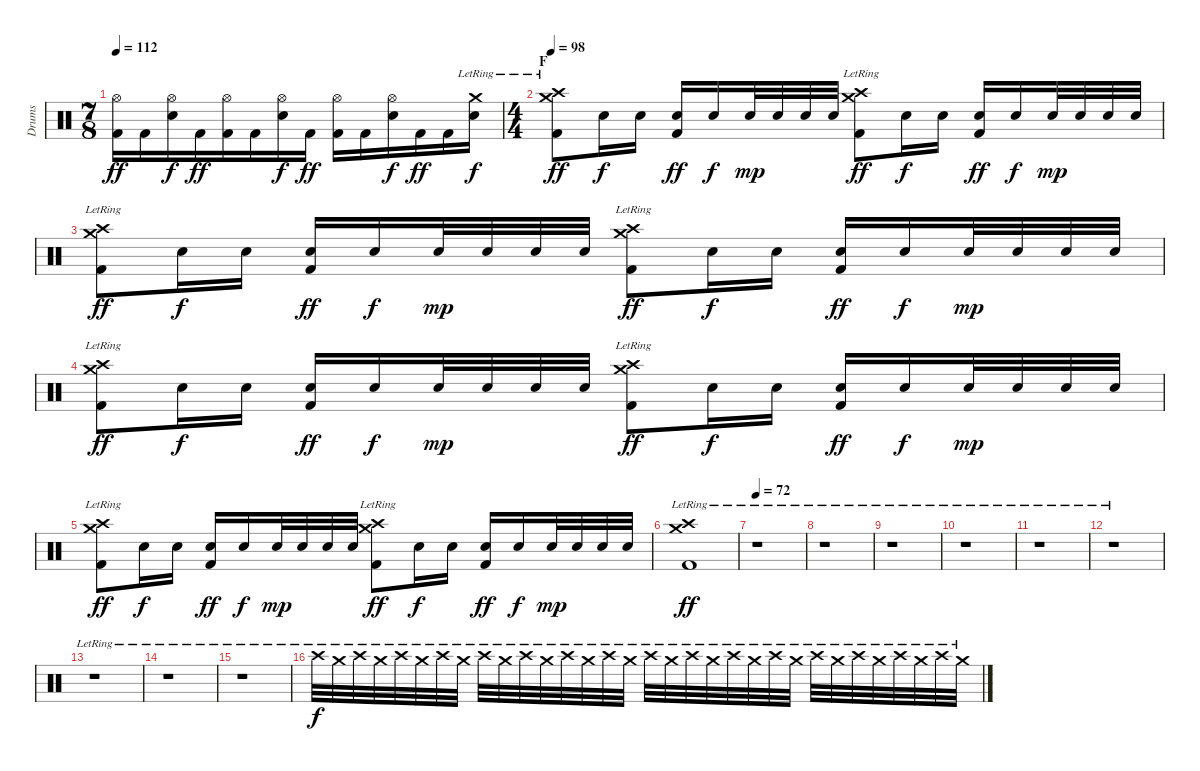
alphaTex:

\track ("Drums" "Drums") {instrument percussion}
\staff {score}
\articulation defaults
\ts (7 8)
\tempo 112
\clef neutral
\ks c
("Hi-Hat (open)" "Kick (hit) 2").16{dy ff} "Kick (hit) 2".16 ("Hi-Hat (open)" "Snare (hit) 2").16{dy f} "Kick (hit) 2".16{dy ff} ("Hi-Hat (open)" "Kick (hit) 2").16 "Kick (hit) 2".16 ("Hi-Hat (open)" "Snare (hit) 2").16{dy f} "Kick (hit) 2".16{dy ff} ("Hi-Hat (open)" "Kick (hit) 2").16 "Kick (hit) 2".16 ("Hi-Hat (open)" "Snare (hit) 2").16{dy f} "Kick (hit) 2".16{dy ff} "Kick (hit) 2".16 ("Crash medium (hit)"{lr} "Snare (hit) 2").16{dy f} |
\ts (4 4)
\section ("" "F")
\tempo 98
("Crash medium (hit)"{lr} "Crash high (hit)" "Kick (hit) 2").8{dy ff} "Snare (hit) 2".16{dy f} "Snare (hit) 2".16 ("Snare (hit) 2" "Kick (hit) 2").16{dy ff} "Snare (hit) 2".16{dy f} "Snare (hit) 2".32{dy mp} "Snare (hit) 2".32 "Snare (hit) 2".32 "Snare (hit) 2".32 ("Crash medium (hit)"{lr} "Crash high (hit)" "Kick (hit) 2").8{dy ff} "Snare (hit) 2".16{dy f} "Snare (hit) 2".16 ("Snare (hit) 2" "Kick (hit) 2").16{dy ff} "Snare (hit) 2".16{dy f} "Snare (hit) 2".32{dy mp} "Snare (hit) 2".32 "Snare (hit) 2".32 "Snare (hit) 2".32 |
("Crash medium (hit)"{lr} "Crash high (hit)" "Kick (hit) 2").8{dy ff} "Snare (hit) 2".16{dy f} "Snare (hit) 2".16 ("Snare (hit) 2" "Kick (hit) 2").16{dy ff} "Snare (hit) 2".16{dy f} "Snare (hit) 2".32{dy mp} "Snare (hit) 2".32 "Snare (hit) 2".32 "Snare (hit) 2".32 ("Crash medium (hit)"{lr} "Crash high (hit)" "Kick (hit) 2").8{dy ff} "Snare (hit) 2".16{dy f} "Snare (hit) 2".16 ("Snare (hit) 2" "Kick (hit) 2").16{dy ff} "Snare (hit) 2".16{dy f} "Snare (hit) 2".32{dy mp} "Snare (hit) 2".32 "Snare (hit) 2".32 "Snare (hit) 2".32 |
("Crash medium (hit)"{lr} "Crash high (hit)" "Kick (hit) 2").8{dy ff} "Snare (hit) 2".16{dy f} "Snare (hit) 2".16 ("Snare (hit) 2" "Kick (hit) 2").16{dy ff} "Snare (hit) 2".16{dy f} "Snare (hit) 2".32{dy mp} "Snare (hit) 2".32 "Snare (hit) 2".32 "Snare (hit) 2".32 ("Crash medium (hit)"{lr} "Crash high (hit)" "Kick (hit) 2").8{dy ff} "Snare (hit) 2".16{dy f} "Snare (hit) 2".16 ("Snare (hit) 2" "Kick (hit) 2").16{dy ff} "Snare (hit) 2".16{dy f} "Snare (hit) 2".32{dy mp} "Snare (hit) 2".32 "Snare (hit) 2".32 "Snare (hit) 2".32 |
("Crash medium (hit)"{lr} "Crash high (hit)" "Kick (hit) 2").8{dy ff} "Snare (hit) 2".16{dy f} "Snare (hit) 2".16 ("Snare (hit) 2" "Kick (hit) 2").16{dy ff} "Snare (hit) 2".16{dy f} "Snare (hit) 2".32{dy mp} "Snare (hit) 2".32 "Snare (hit) 2".32 "Snare (hit) 2".32 ("Crash medium (hit)"{lr} "Crash high (hit)" "Kick (hit) 2").8{dy ff} "Snare (hit) 2".16{dy f} "Snare (hit) 2".16 ("Snare (hit) 2" "Kick (hit) 2").16{dy ff} "Snare (hit) 2".16{dy f} "Snare (hit) 2".32{dy mp} "Snare (hit) 2".32 "Snare (hit) 2".32 "Snare (hit) 2".32 |
("Crash medium (hit)"{lr} "Crash high (hit)" "Kick (hit) 2").1{dy ff} |
\tempo 72
r.1{volume 0} |
r.1 |
r.1 |
r.1 |
r.1 |
r.1 |
r.1 |
r.1 |
r.1 |
"Crash high (hit)"{lr}.32{dy f volume 16} "Crash medium (hit)"{lr}.32 "Crash high (hit)"{lr}.32 "Crash medium (hit)"{lr}.32 "Crash high (hit)"{lr}.32 "Crash medium (hit)"{lr}.32 "Crash high (hit)"{lr}.32 "Crash medium (hit)"{lr}.32 "Crash high (hit)"{lr}.32 "Crash medium (hit)"{lr}.32 "Crash high (hit)"{lr}.32 "Crash medium (hit)"{lr}.32 "Crash high (hit)"{lr}.32 "Crash medium (hit)"{lr}.32 "Crash high (hit)"{lr}.32 "Crash medium (hit)"{lr}.32 "Crash high (hit)"{lr}.32 "Crash medium (hit)"{lr}.32 "Crash high (hit)"{lr}.32 "Crash medium (hit)"{lr}.32 "Crash high (hit)"{lr}.32 "Crash medium (hit)"{lr}.32 "Crash high (hit)"{lr}.32 "Crash medium (hit)"{lr}.32 "Crash high (hit)"{lr}.32 "Crash medium (hit)"{lr}.32 "Crash high (hit)"{lr}.32 "Crash medium (hit)"{lr}.32 "Crash high (hit)"{lr}.32 "Crash medium (hit)"{lr}.32 "Crash high (hit)"{lr}.32 "Crash medium (hit)"{lr}.32
